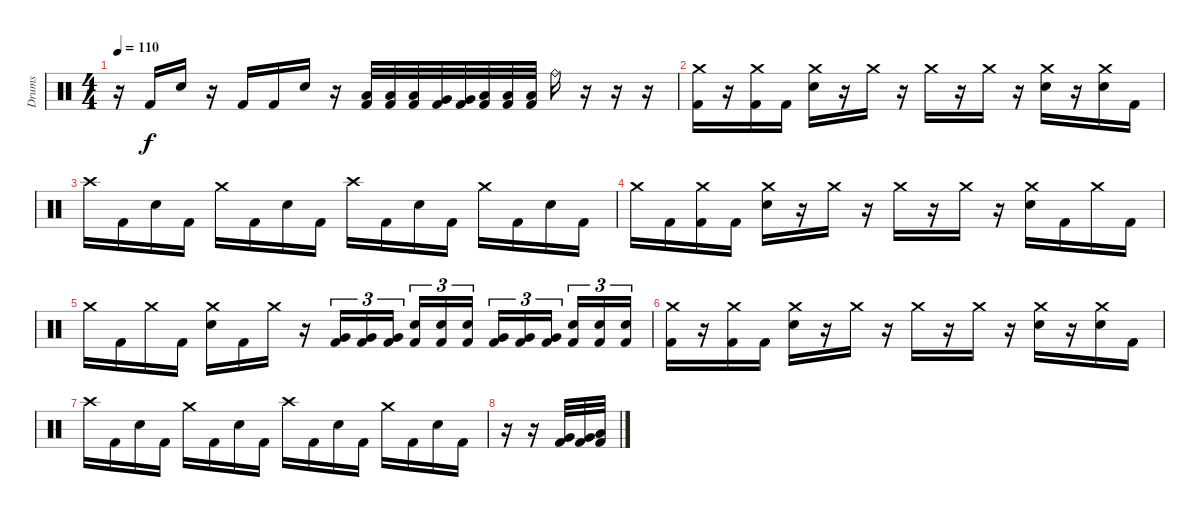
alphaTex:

\track ("Drums" "Drums") {instrument percussion}
\staff {score}
\articulation defaults
\ts (4 4)
\tempo 110
\clef neutral
\ks c
r.16{dy f} "Kick (hit) 2".16 "Electric Snare (hit)".16 r.16 "Kick (hit) 2".16 "Kick (hit) 2".16 "Electric Snare (hit)".16 r.16 ("Low Tom (hit)" "Kick (hit) 2").32 ("Low Tom (hit)" "Kick (hit) 2").32 ("Low Tom (hit)" "Kick (hit) 2").32 ("Very Low Tom (hit)" "Kick (hit) 2").32 ("Very Low Tom (hit)" "Kick (hit) 2").32 ("Low Floor Tom (hit)" "Kick (hit) 2").32 ("Low Floor Tom (hit)" "Kick (hit) 2").32 ("Low Floor Tom (hit)" "Kick (hit) 2").32 "Ride (bell)".16 r.16 r.16 r.16 |
("Crash medium (hit)" "Kick (hit) 2").16 r.16 ("Crash medium (hit)" "Kick (hit) 2").16 "Kick (hit) 2".16 ("Crash medium (hit)" "Electric Snare (hit)").16 r.16 "Crash medium (hit)".16 r.16 "Crash medium (hit)".16 r.16 "Crash medium (hit)".16 r.16 ("Crash medium (hit)" "Electric Snare (hit)").16 r.16 ("Crash medium (hit)" "Electric Snare (hit)").16 "Kick (hit) 2".16 |
"Crash high (hit)".16 "Kick (hit) 2".16 "Electric Snare (hit)".16 "Kick (hit) 2".16 "Crash medium (hit)".16 "Kick (hit) 2".16 "Electric Snare (hit)".16 "Kick (hit) 2".16 "Crash high (hit)".16 "Kick (hit) 2".16 "Electric Snare (hit)".16 "Kick (hit) 2".16 "Crash medium (hit)".16 "Kick (hit) 2".16 "Electric Snare (hit)".16 "Kick (hit) 2".16 |
"Crash medium (hit)".16 "Kick (hit) 2".16 ("Crash medium (hit)" "Kick (hit) 2").16 "Kick (hit) 2".16 ("Crash medium (hit)" "Electric Snare (hit)").16 r.16 "Crash medium (hit)".16 r.16 "Crash medium (hit)".16 r.16 "Crash medium (hit)".16 r.16 ("Crash medium (hit)" "Electric Snare (hit)").16 "Kick (hit) 2".16 "Crash medium (hit)".16 "Kick (hit) 2".16 |
"Crash medium (hit)".16 "Kick (hit) 2".16 "Crash medium (hit)".16 "Kick (hit) 2".16 ("Crash medium (hit)" "Electric Snare (hit)").16 "Kick (hit) 2".16 "Crash medium (hit)".16 r.16 ("Very Low Tom (hit)" "Kick (hit) 2").16{tu (3 2)} ("Very Low Tom (hit)" "Kick (hit) 2").16{tu (3 2)} ("Very Low Tom (hit)" "Kick (hit) 2").16{tu (3 2) beam splitsecondary} ("Electric Snare (hit)" "Kick (hit) 2").16{tu (3 2)} ("Electric Snare (hit)" "Kick (hit) 2").16{tu (3 2)} ("Electric Snare (hit)" "Kick (hit) 2").16{tu (3 2)} ("Very Low Tom (hit)" "Kick (hit) 2").16{tu (3 2)} ("Very Low Tom (hit)" "Kick (hit) 2").16{tu (3 2)} ("Very Low Tom (hit)" "Kick (hit) 2").16{tu (3 2) beam splitsecondary} ("Electric Snare (hit)" "Kick (hit) 2").16{tu (3 2)} ("Electric Snare (hit)" "Kick (hit) 2").16{tu (3 2)} ("Electric Snare (hit)" "Kick (hit) 2").16{tu (3 2)} |
("Crash medium (hit)" "Kick (hit) 2").16 r.16 ("Crash medium (hit)" "Kick (hit) 2").16 "Kick (hit) 2".16 ("Crash medium (hit)" "Electric Snare (hit)").16 r.16 "Crash medium (hit)".16 r.16 "Crash medium (hit)".16 r.16 "Crash medium (hit)".16 r.16 ("Crash medium (hit)" "Electric Snare (hit)").16 r.16 ("Crash medium (hit)" "Electric Snare (hit)").16 "Kick (hit) 2".16 |
"Crash high (hit)".16 "Kick (hit) 2".16 "Electric Snare (hit)".16 "Kick (hit) 2".16 "Crash medium (hit)".16 "Kick (hit) 2".16 "Electric Snare (hit)".16 "Kick (hit) 2".16 "Crash high (hit)".16 "Kick (hit) 2".16 "Electric Snare (hit)".16 "Kick (hit) 2".16 "Crash medium (hit)".16 "Kick (hit) 2".16 "Electric Snare (hit)".16 "Kick (hit) 2".16 |
r.16 r.16 ("Very Low Tom (hit)" "Kick (hit) 2").32 ("Very Low Tom (hit)" "Kick (hit) 2").32 ("Low Floor Tom (hit)" "Kick (hit) 2").32
